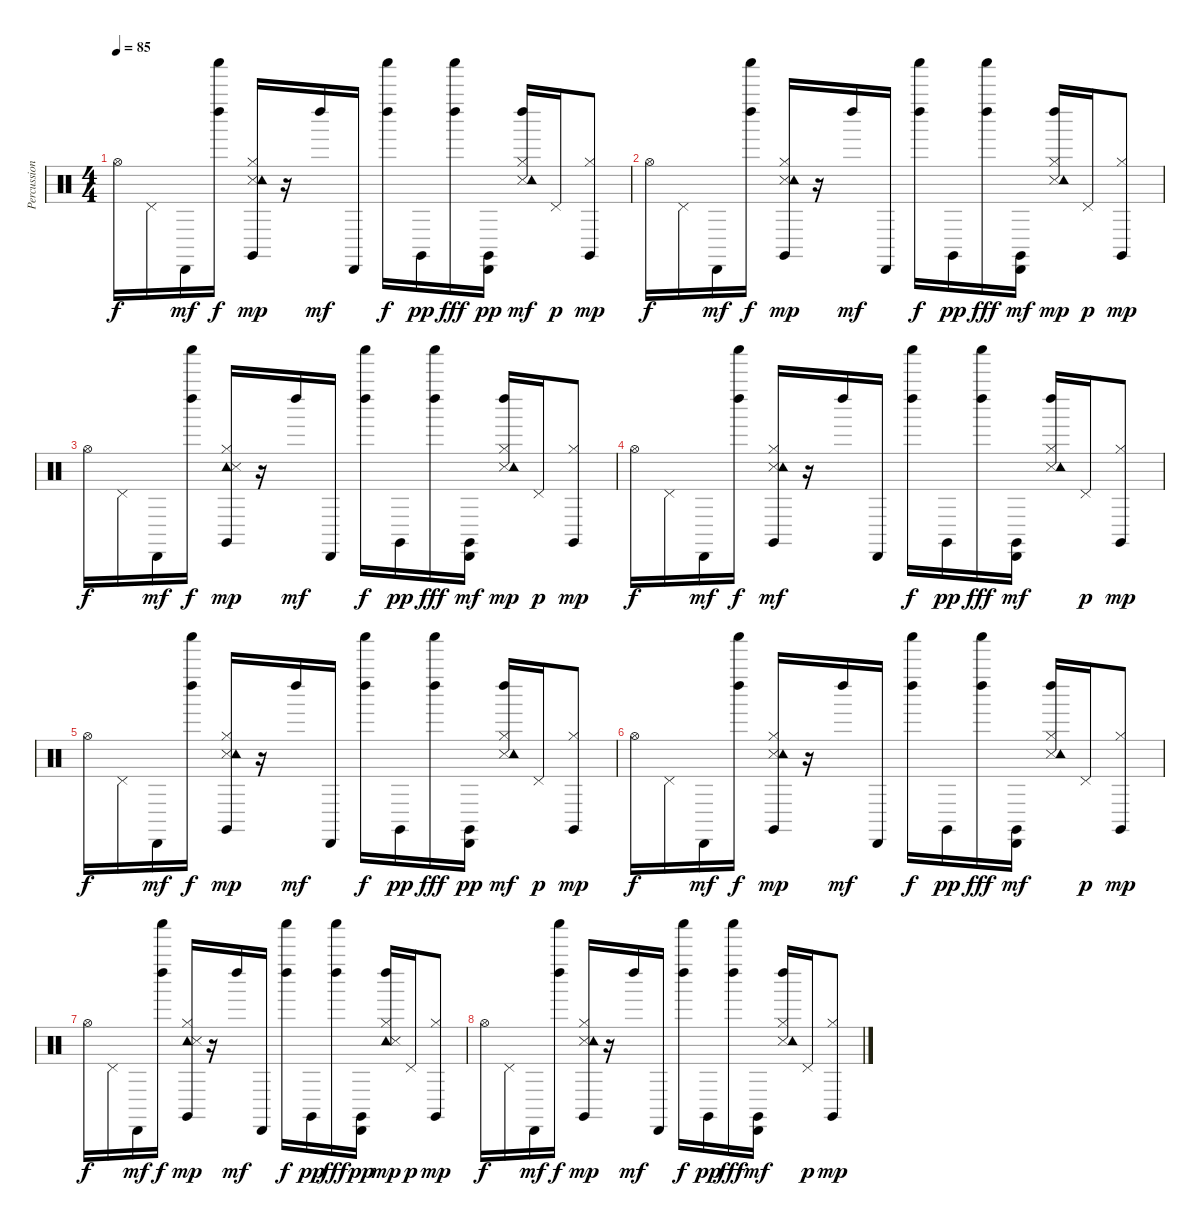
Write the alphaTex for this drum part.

\track ("Percussion" "Percussion") {instrument percussion}
\staff {score}
\articulation defaults
\ts (4 4)
\tempo 85
\clef neutral
\ks c "Hi-Hat (open)".16{dy f} "Pedal Hi-Hat (hit)".16 "Cabasa (hit)".16{dy mf}
("Left Maraca (hit)" "Shaker (hit)").16{dy f} ("Hi-Hat (closed)" "Snare (side stick) 3" "Tambourine (hit)" "Claves (hit)").16{dy mp} r.16 "Left Maraca (hit)".16{dy mf} "Cabasa (hit)".16 ("Left Maraca (hit)" "Shaker (hit)").16{dy f} "Claves (hit)".16{dy pp} ("Left Maraca (hit)" "Shaker (hit)").16{dy fff} ("Cabasa (hit)" "Claves (hit)").16{dy pp} ("Snare (side stick) 3" "Hi-Hat (closed)" "Left Maraca (hit)" "Tambourine (hit)").16{dy mf} "Pedal Hi-Hat (hit)".16{dy p} ("Hi-Hat (closed)" "Claves (hit)").8{dy mp} |
"Hi-Hat (open)".16{dy f} "Pedal Hi-Hat (hit)".16 "Cabasa (hit)".16{dy mf} ("Left Maraca (hit)" "Shaker (hit)").16{dy f} ("Snare (side stick) 3" "Claves (hit)" "Tambourine (hit)" "Hi-Hat (closed)").16{dy mp} r.16 "Left Maraca (hit)".16{dy mf} "Cabasa (hit)".16 ("Left Maraca (hit)" "Shaker (hit)").16{dy f} "Claves (hit)".16{dy pp} ("Left Maraca (hit)" "Shaker (hit)").16{dy fff} ("Claves (hit)" "Cabasa (hit)").16{dy mf} ("Snare (side stick) 3" "Tambourine (hit)" "Left Maraca (hit)" "Hi-Hat (closed)").16{dy mp} "Pedal Hi-Hat (hit)".16{dy p} ("Claves (hit)" "Hi-Hat (closed)").8{dy mp} |
"Hi-Hat (open)".16{dy f} "Pedal Hi-Hat (hit)".16 "Cabasa (hit)".16{dy mf} ("Left Maraca (hit)" "Shaker (hit)").16{dy f} ("Tambourine (hit)" "Snare (side stick) 3" "Claves (hit)" "Hi-Hat (closed)").16{dy mp} r.16 "Left Maraca (hit)".16{dy mf} "Cabasa (hit)".16 ("Shaker (hit)" "Left Maraca (hit)").16{dy f} "Claves (hit)".16{dy pp} ("Left Maraca (hit)" "Shaker (hit)").16{dy fff} ("Claves (hit)" "Cabasa (hit)").16{dy mf} ("Snare (side stick) 3" "Tambourine (hit)" "Left Maraca (hit)" "Hi-Hat (closed)").16{dy mp} "Pedal Hi-Hat (hit)".16{dy p} ("Claves (hit)" "Hi-Hat (closed)").8{dy mp} |
"Hi-Hat (open)".16{dy f} "Pedal Hi-Hat (hit)".16 "Cabasa (hit)".16{dy mf} ("Shaker (hit)" "Left Maraca (hit)").16{dy f} ("Hi-Hat (closed)" "Claves (hit)" "Snare (side stick) 3" "Tambourine (hit)").16{dy mf} r.16 "Left Maraca (hit)".16 "Cabasa (hit)".16 ("Left Maraca (hit)" "Shaker (hit)").16{dy f} "Claves (hit)".16{dy pp} ("Shaker (hit)" "Left Maraca (hit)").16{dy fff} ("Claves (hit)" "Cabasa (hit)").16{dy mf} ("Hi-Hat (closed)" "Left Maraca (hit)" "Snare (side stick) 3" "Tambourine (hit)").16 "Pedal Hi-Hat (hit)".16{dy p} ("Claves (hit)" "Hi-Hat (closed)").8{dy mp} |
"Hi-Hat (open)".16{dy f} "Pedal Hi-Hat (hit)".16 "Cabasa (hit)".16{dy mf} ("Left Maraca (hit)" "Shaker (hit)").16{dy f} ("Snare (side stick) 3" "Hi-Hat (closed)" "Tambourine (hit)" "Claves (hit)").16{dy mp} r.16 "Left Maraca (hit)".16{dy mf} "Cabasa (hit)".16 ("Shaker (hit)" "Left Maraca (hit)").16{dy f} "Claves (hit)".16{dy pp} ("Left Maraca (hit)" "Shaker (hit)").16{dy fff} ("Cabasa (hit)" "Claves (hit)").16{dy pp} ("Snare (side stick) 3" "Left Maraca (hit)" "Hi-Hat (closed)" "Tambourine (hit)").16{dy mf} "Pedal Hi-Hat (hit)".16{dy p} ("Claves (hit)" "Hi-Hat (closed)").8{dy mp} |
"Hi-Hat (open)".16{dy f} "Pedal Hi-Hat (hit)".16 "Cabasa (hit)".16{dy mf} ("Left Maraca (hit)" "Shaker (hit)").16{dy f} ("Snare (side stick) 3" "Claves (hit)" "Tambourine (hit)" "Hi-Hat (closed)").16{dy mp} r.16 "Left Maraca (hit)".16{dy mf} "Cabasa (hit)".16 ("Left Maraca (hit)" "Shaker (hit)").16{dy f} "Claves (hit)".16{dy pp} ("Left Maraca (hit)" "Shaker (hit)").16{dy fff} ("Claves (hit)" "Cabasa (hit)").16{dy mf} ("Left Maraca (hit)" "Hi-Hat (closed)" "Snare (side stick) 3" "Tambourine (hit)").16 "Pedal Hi-Hat (hit)".16{dy p} ("Hi-Hat (closed)" "Claves (hit)").8{dy mp} |
"Hi-Hat (open)".16{dy f} "Pedal Hi-Hat (hit)".16 "Cabasa (hit)".16{dy mf} ("Shaker (hit)" "Left Maraca (hit)").16{dy f} ("Hi-Hat (closed)" "Tambourine (hit)" "Snare (side stick) 3" "Claves (hit)").16{dy mp} r.16 "Left Maraca (hit)".16{dy mf} "Cabasa (hit)".16 ("Shaker (hit)" "Left Maraca (hit)").16{dy f} "Claves (hit)".16{dy pp} ("Shaker (hit)" "Left Maraca (hit)").16{dy fff} ("Cabasa (hit)" "Claves (hit)").16{dy pp} ("Tambourine (hit)" "Hi-Hat (closed)" "Snare (side stick) 3" "Left Maraca (hit)").16{dy mp} "Pedal Hi-Hat (hit)".16{dy p} ("Hi-Hat (closed)" "Claves (hit)").8{dy mp} |
"Hi-Hat (open)".16{dy f} "Pedal Hi-Hat (hit)".16 "Cabasa (hit)".16{dy mf} ("Left Maraca (hit)" "Shaker (hit)").16{dy f} ("Snare (side stick) 3" "Claves (hit)" "Tambourine (hit)" "Hi-Hat (closed)").16{dy mp} r.16 "Left Maraca (hit)".16{dy mf} "Cabasa (hit)".16 ("Left Maraca (hit)" "Shaker (hit)").16{dy f} "Claves (hit)".16{dy pp} ("Left Maraca (hit)" "Shaker (hit)").16{dy fff} ("Claves (hit)" "Cabasa (hit)").16{dy mf} ("Left Maraca (hit)" "Hi-Hat (closed)" "Snare (side stick) 3" "Tambourine (hit)").16 "Pedal Hi-Hat (hit)".16{dy p} ("Claves (hit)" "Hi-Hat (closed)").8{dy mp}
